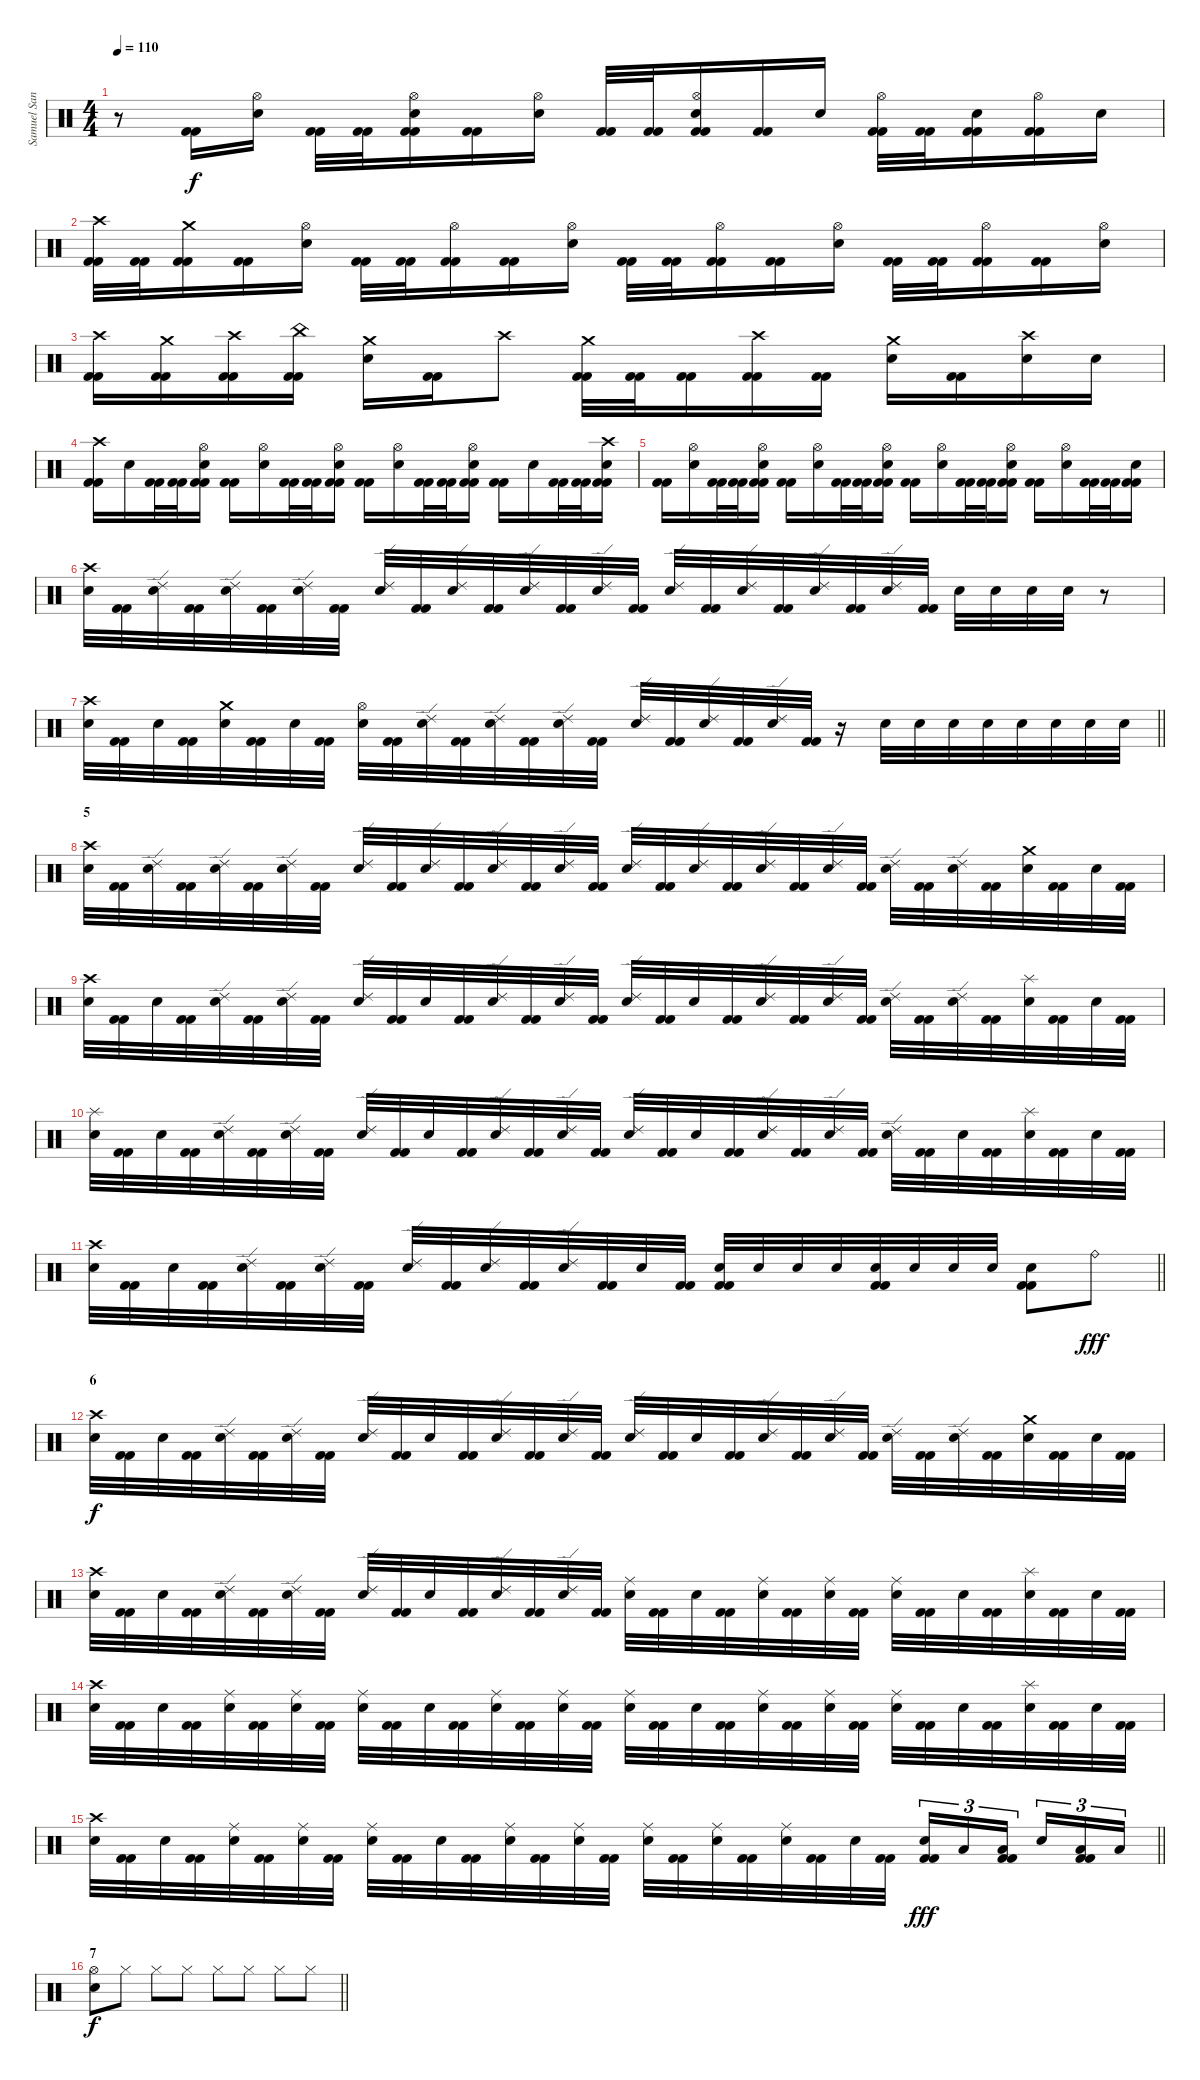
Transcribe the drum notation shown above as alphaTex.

\track ("Samuel Santiago" "Samuel San") {instrument percussion}
\staff {score}
\articulation defaults
\ts (4 4)
\tempo 110
\clef neutral
\ks c
r.8{dy f} ("Kick (hit) 2" "Kick (hit) 2").16 ("Hi-Hat (open)" "Electric Snare (hit)").16 ("Kick (hit) 2" "Kick (hit) 2").32 ("Kick (hit) 2" "Kick (hit) 2").32 ("Hi-Hat (open)" "Electric Snare (hit)" "Kick (hit) 2" "Kick (hit) 2").16 ("Kick (hit) 2" "Kick (hit) 2").16 ("Hi-Hat (open)" "Electric Snare (hit)").16 ("Kick (hit) 2" "Kick (hit) 2").32 ("Kick (hit) 2" "Kick (hit) 2").32 ("Hi-Hat (open)" "Electric Snare (hit)" "Kick (hit) 2" "Kick (hit) 2").16 ("Kick (hit) 2" "Kick (hit) 2").16 "Electric Snare (hit)".16 ("Hi-Hat (open)" "Kick (hit) 2" "Kick (hit) 2").32 ("Kick (hit) 2" "Kick (hit) 2").32 ("Electric Snare (hit)" "Kick (hit) 2" "Kick (hit) 2").16 ("Hi-Hat (open)" "Kick (hit) 2" "Kick (hit) 2").16 "Electric Snare (hit)".16 |
("Crash high (hit)" "Kick (hit) 2" "Kick (hit) 2").32 ("Kick (hit) 2" "Kick (hit) 2").32 ("Crash medium (hit)" "Kick (hit) 2" "Kick (hit) 2").16 ("Kick (hit) 2" "Kick (hit) 2").16 ("Hi-Hat (open)" "Electric Snare (hit)").16 ("Kick (hit) 2" "Kick (hit) 2").32 ("Kick (hit) 2" "Kick (hit) 2").32 ("Hi-Hat (open)" "Kick (hit) 2" "Kick (hit) 2").16 ("Kick (hit) 2" "Kick (hit) 2").16 ("Hi-Hat (open)" "Electric Snare (hit)").16 ("Kick (hit) 2" "Kick (hit) 2").32 ("Kick (hit) 2" "Kick (hit) 2").32 ("Hi-Hat (open)" "Kick (hit) 2" "Kick (hit) 2").16 ("Kick (hit) 2" "Kick (hit) 2").16 ("Hi-Hat (open)" "Electric Snare (hit)").16 ("Kick (hit) 2" "Kick (hit) 2").32 ("Kick (hit) 2" "Kick (hit) 2").32 ("Hi-Hat (open)" "Kick (hit) 2" "Kick (hit) 2").16 ("Kick (hit) 2" "Kick (hit) 2").16 ("Hi-Hat (open)" "Electric Snare (hit)").16 |
("Crash high (hit)" "Kick (hit) 2" "Kick (hit) 2").16 ("Crash medium (hit)" "Kick (hit) 2" "Kick (hit) 2").16 ("Crash high (hit)" "Kick (hit) 2" "Kick (hit) 2").16 ("China (hit)" "Kick (hit) 2" "Kick (hit) 2").16 ("Crash medium (hit)" "Electric Snare (hit)").16 ("Kick (hit) 2" "Kick (hit) 2").16 "Crash high (hit)".8 ("Crash medium (hit)" "Kick (hit) 2" "Kick (hit) 2").32 ("Kick (hit) 2" "Kick (hit) 2").32 ("Kick (hit) 2" "Kick (hit) 2").16 ("Crash high (hit)" "Kick (hit) 2" "Kick (hit) 2").16 ("Kick (hit) 2" "Kick (hit) 2").16 ("Crash medium (hit)" "Electric Snare (hit)").16 ("Kick (hit) 2" "Kick (hit) 2").16 ("Crash high (hit)" "Electric Snare (hit)").16 "Electric Snare (hit)".16 |
("Crash high (hit)" "Kick (hit) 2" "Kick (hit) 2").16 "Electric Snare (hit)".16 ("Kick (hit) 2" "Kick (hit) 2").32 ("Kick (hit) 2" "Kick (hit) 2").32 ("Hi-Hat (open)" "Electric Snare (hit)" "Kick (hit) 2" "Kick (hit) 2").16 ("Kick (hit) 2" "Kick (hit) 2").16 ("Hi-Hat (open)" "Electric Snare (hit)").16 ("Kick (hit) 2" "Kick (hit) 2").32 ("Kick (hit) 2" "Kick (hit) 2").32 ("Hi-Hat (open)" "Electric Snare (hit)" "Kick (hit) 2" "Kick (hit) 2").16 ("Kick (hit) 2" "Kick (hit) 2").16 ("Hi-Hat (open)" "Electric Snare (hit)").16 ("Kick (hit) 2" "Kick (hit) 2").32 ("Kick (hit) 2" "Kick (hit) 2").32 ("Hi-Hat (open)" "Electric Snare (hit)" "Kick (hit) 2" "Kick (hit) 2").16 ("Kick (hit) 2" "Kick (hit) 2").16 "Electric Snare (hit)".16 ("Kick (hit) 2" "Kick (hit) 2").32 ("Kick (hit) 2" "Kick (hit) 2").32 ("Crash high (hit)" "Electric Snare (hit)" "Kick (hit) 2" "Kick (hit) 2").16 |
("Kick (hit) 2" "Kick (hit) 2").16 ("Hi-Hat (open)" "Electric Snare (hit)").16 ("Kick (hit) 2" "Kick (hit) 2").32 ("Kick (hit) 2" "Kick (hit) 2").32 ("Hi-Hat (open)" "Electric Snare (hit)" "Kick (hit) 2" "Kick (hit) 2").16 ("Kick (hit) 2" "Kick (hit) 2").16 ("Hi-Hat (open)" "Electric Snare (hit)").16 ("Kick (hit) 2" "Kick (hit) 2").32 ("Kick (hit) 2" "Kick (hit) 2").32 ("Hi-Hat (open)" "Electric Snare (hit)" "Kick (hit) 2" "Kick (hit) 2").16 ("Kick (hit) 2" "Kick (hit) 2").16 ("Hi-Hat (open)" "Electric Snare (hit)").16 ("Kick (hit) 2" "Kick (hit) 2").32 ("Kick (hit) 2" "Kick (hit) 2").32 ("Hi-Hat (open)" "Electric Snare (hit)" "Kick (hit) 2" "Kick (hit) 2").16 ("Kick (hit) 2" "Kick (hit) 2").16 ("Hi-Hat (open)" "Electric Snare (hit)").16 ("Kick (hit) 2" "Kick (hit) 2").32 ("Kick (hit) 2" "Kick (hit) 2").32 ("Electric Snare (hit)" "Kick (hit) 2" "Kick (hit) 2").16 |
("Crash high (hit)" "Electric Snare (hit)").32 ("Kick (hit) 2" "Kick (hit) 2").32 ("Ride (edge) 2" "Electric Snare (hit)").32 ("Kick (hit) 2" "Kick (hit) 2").32 ("Ride (edge) 2" "Electric Snare (hit)").32 ("Kick (hit) 2" "Kick (hit) 2").32 ("Ride (edge) 2" "Electric Snare (hit)").32 ("Kick (hit) 2" "Kick (hit) 2").32 ("Ride (edge) 2" "Electric Snare (hit)").32 ("Kick (hit) 2" "Kick (hit) 2").32 ("Ride (edge) 2" "Electric Snare (hit)").32 ("Kick (hit) 2" "Kick (hit) 2").32 ("Ride (edge) 2" "Electric Snare (hit)").32 ("Kick (hit) 2" "Kick (hit) 2").32 ("Ride (edge) 2" "Electric Snare (hit)").32 ("Kick (hit) 2" "Kick (hit) 2").32 ("Ride (edge) 2" "Electric Snare (hit)").32 ("Kick (hit) 2" "Kick (hit) 2").32 ("Ride (edge) 2" "Electric Snare (hit)").32 ("Kick (hit) 2" "Kick (hit) 2").32 ("Ride (edge) 2" "Electric Snare (hit)").32 ("Kick (hit) 2" "Kick (hit) 2").32 ("Ride (edge) 2" "Electric Snare (hit)").32 ("Kick (hit) 2" "Kick (hit) 2").32 "Electric Snare (hit)".32 "Electric Snare (hit)".32 "Electric Snare (hit)".32 "Electric Snare (hit)".32 r.8 |
\barLineRight lightlight
("Crash high (hit)" "Electric Snare (hit)").32 ("Kick (hit) 2" "Kick (hit) 2").32 "Electric Snare (hit)".32 ("Kick (hit) 2" "Kick (hit) 2").32 ("Crash medium (hit)" "Electric Snare (hit)").32 ("Kick (hit) 2" "Kick (hit) 2").32 "Electric Snare (hit)".32 ("Kick (hit) 2" "Kick (hit) 2").32 ("Hi-Hat (open)" "Electric Snare (hit)").32 ("Kick (hit) 2" "Kick (hit) 2").32 ("Ride (edge) 2" "Electric Snare (hit)").32 ("Kick (hit) 2" "Kick (hit) 2").32 ("Ride (edge) 2" "Electric Snare (hit)").32 ("Kick (hit) 2" "Kick (hit) 2").32 ("Ride (edge) 2" "Electric Snare (hit)").32 ("Kick (hit) 2" "Kick (hit) 2").32 ("Ride (edge) 2" "Electric Snare (hit)").32 ("Kick (hit) 2" "Kick (hit) 2").32 ("Ride (edge) 2" "Electric Snare (hit)").32 ("Kick (hit) 2" "Kick (hit) 2").32 ("Ride (edge) 2" "Electric Snare (hit)").32 ("Kick (hit) 2" "Kick (hit) 2").32 r.16 "Electric Snare (hit)".32 "Electric Snare (hit)".32 "Electric Snare (hit)".32 "Electric Snare (hit)".32 "Electric Snare (hit)".32 "Electric Snare (hit)".32 "Electric Snare (hit)".32 "Electric Snare (hit)".32 |
\section ("" "5")
("Crash high (hit)" "Electric Snare (hit)").32 ("Kick (hit) 2" "Kick (hit) 2").32 ("Ride (edge) 2" "Electric Snare (hit)").32 ("Kick (hit) 2" "Kick (hit) 2").32 ("Ride (edge) 2" "Electric Snare (hit)").32 ("Kick (hit) 2" "Kick (hit) 2").32 ("Ride (edge) 2" "Electric Snare (hit)").32 ("Kick (hit) 2" "Kick (hit) 2").32 ("Ride (edge) 2" "Electric Snare (hit)").32 ("Kick (hit) 2" "Kick (hit) 2").32 ("Ride (edge) 2" "Electric Snare (hit)").32 ("Kick (hit) 2" "Kick (hit) 2").32 ("Ride (edge) 2" "Electric Snare (hit)").32 ("Kick (hit) 2" "Kick (hit) 2").32 ("Ride (edge) 2" "Electric Snare (hit)").32 ("Kick (hit) 2" "Kick (hit) 2").32 ("Ride (edge) 2" "Electric Snare (hit)").32 ("Kick (hit) 2" "Kick (hit) 2").32 ("Ride (edge) 2" "Electric Snare (hit)").32 ("Kick (hit) 2" "Kick (hit) 2").32 ("Ride (edge) 2" "Electric Snare (hit)").32 ("Kick (hit) 2" "Kick (hit) 2").32 ("Ride (edge) 2" "Electric Snare (hit)").32 ("Kick (hit) 2" "Kick (hit) 2").32 ("Ride (edge) 2" "Electric Snare (hit)").32 ("Kick (hit) 2" "Kick (hit) 2").32 ("Ride (edge) 2" "Electric Snare (hit)").32 ("Kick (hit) 2" "Kick (hit) 2").32 ("Crash medium (hit)" "Electric Snare (hit)").32 ("Kick (hit) 2" "Kick (hit) 2").32 "Electric Snare (hit)".32 ("Kick (hit) 2" "Kick (hit) 2").32 |
("Crash high (hit)" "Electric Snare (hit)").32 ("Kick (hit) 2" "Kick (hit) 2").32 "Electric Snare (hit)".32 ("Kick (hit) 2" "Kick (hit) 2").32 ("Ride (edge) 2" "Electric Snare (hit)").32 ("Kick (hit) 2" "Kick (hit) 2").32 ("Ride (edge) 2" "Electric Snare (hit)").32 ("Kick (hit) 2" "Kick (hit) 2").32 ("Ride (edge) 2" "Electric Snare (hit)").32 ("Kick (hit) 2" "Kick (hit) 2").32 "Electric Snare (hit)".32 ("Kick (hit) 2" "Kick (hit) 2").32 ("Ride (edge) 2" "Electric Snare (hit)").32 ("Kick (hit) 2" "Kick (hit) 2").32 ("Ride (edge) 2" "Electric Snare (hit)").32 ("Kick (hit) 2" "Kick (hit) 2").32 ("Ride (edge) 2" "Electric Snare (hit)").32 ("Kick (hit) 2" "Kick (hit) 2").32 "Electric Snare (hit)".32 ("Kick (hit) 2" "Kick (hit) 2").32 ("Ride (edge) 2" "Electric Snare (hit)").32 ("Kick (hit) 2" "Kick (hit) 2").32 ("Ride (edge) 2" "Electric Snare (hit)").32 ("Kick (hit) 2" "Kick (hit) 2").32 ("Ride (edge) 2" "Electric Snare (hit)").32 ("Kick (hit) 2" "Kick (hit) 2").32 ("Ride (edge) 2" "Electric Snare (hit)").32 ("Kick (hit) 2" "Kick (hit) 2").32 ("Splash (hit)" "Electric Snare (hit)").32 ("Kick (hit) 2" "Kick (hit) 2").32 "Electric Snare (hit)".32 ("Kick (hit) 2" "Kick (hit) 2").32 |
("Splash (hit)" "Electric Snare (hit)").32 ("Kick (hit) 2" "Kick (hit) 2").32 "Electric Snare (hit)".32 ("Kick (hit) 2" "Kick (hit) 2").32 ("Ride (edge) 2" "Electric Snare (hit)").32 ("Kick (hit) 2" "Kick (hit) 2").32 ("Ride (edge) 2" "Electric Snare (hit)").32 ("Kick (hit) 2" "Kick (hit) 2").32 ("Ride (edge) 2" "Electric Snare (hit)").32 ("Kick (hit) 2" "Kick (hit) 2").32 "Electric Snare (hit)".32 ("Kick (hit) 2" "Kick (hit) 2").32 ("Ride (edge) 2" "Electric Snare (hit)").32 ("Kick (hit) 2" "Kick (hit) 2").32 ("Ride (edge) 2" "Electric Snare (hit)").32 ("Kick (hit) 2" "Kick (hit) 2").32 ("Ride (edge) 2" "Electric Snare (hit)").32 ("Kick (hit) 2" "Kick (hit) 2").32 "Electric Snare (hit)".32 ("Kick (hit) 2" "Kick (hit) 2").32 ("Ride (edge) 2" "Electric Snare (hit)").32 ("Kick (hit) 2" "Kick (hit) 2").32 ("Ride (edge) 2" "Electric Snare (hit)").32 ("Kick (hit) 2" "Kick (hit) 2").32 ("Ride (edge) 2" "Electric Snare (hit)").32 ("Kick (hit) 2" "Kick (hit) 2").32 "Electric Snare (hit)".32 ("Kick (hit) 2" "Kick (hit) 2").32 ("Splash (hit)" "Electric Snare (hit)").32 ("Kick (hit) 2" "Kick (hit) 2").32 "Electric Snare (hit)".32 ("Kick (hit) 2" "Kick (hit) 2").32 |
\barLineRight lightlight
("Crash high (hit)" "Electric Snare (hit)").32 ("Kick (hit) 2" "Kick (hit) 2").32 "Electric Snare (hit)".32 ("Kick (hit) 2" "Kick (hit) 2").32 ("Ride (edge) 2" "Electric Snare (hit)").32 ("Kick (hit) 2" "Kick (hit) 2").32 ("Ride (edge) 2" "Electric Snare (hit)").32 ("Kick (hit) 2" "Kick (hit) 2").32 ("Ride (edge) 2" "Electric Snare (hit)").32 ("Kick (hit) 2" "Kick (hit) 2").32 ("Ride (edge) 2" "Electric Snare (hit)").32 ("Kick (hit) 2" "Kick (hit) 2").32 ("Ride (edge) 2" "Electric Snare (hit)").32 ("Kick (hit) 2" "Kick (hit) 2").32 "Electric Snare (hit)".32 ("Kick (hit) 2" "Kick (hit) 2").32 ("Electric Snare (hit)" "Kick (hit) 2" "Kick (hit) 2").32 "Electric Snare (hit)".32 "Electric Snare (hit)".32 "Electric Snare (hit)".32 ("Electric Snare (hit)" "Kick (hit) 2" "Kick (hit) 2").32 "Electric Snare (hit)".32 "Electric Snare (hit)".32 "Electric Snare (hit)".32 ("Electric Snare (hit)" "Kick (hit) 2" "Kick (hit) 2").8 "Ride (bell)".8{dy fff} |
\section ("" "6")
("Crash high (hit)" "Electric Snare (hit)").32{dy f} ("Kick (hit) 2" "Kick (hit) 2").32 "Electric Snare (hit)".32 ("Kick (hit) 2" "Kick (hit) 2").32 ("Ride (edge) 2" "Electric Snare (hit)").32 ("Kick (hit) 2" "Kick (hit) 2").32 ("Ride (edge) 2" "Electric Snare (hit)").32 ("Kick (hit) 2" "Kick (hit) 2").32 ("Ride (edge) 2" "Electric Snare (hit)").32 ("Kick (hit) 2" "Kick (hit) 2").32 "Electric Snare (hit)".32 ("Kick (hit) 2" "Kick (hit) 2").32 ("Ride (edge) 2" "Electric Snare (hit)").32 ("Kick (hit) 2" "Kick (hit) 2").32 ("Ride (edge) 2" "Electric Snare (hit)").32 ("Kick (hit) 2" "Kick (hit) 2").32 ("Ride (edge) 2" "Electric Snare (hit)").32 ("Kick (hit) 2" "Kick (hit) 2").32 "Electric Snare (hit)".32 ("Kick (hit) 2" "Kick (hit) 2").32 ("Ride (edge) 2" "Electric Snare (hit)").32 ("Kick (hit) 2" "Kick (hit) 2").32 ("Ride (edge) 2" "Electric Snare (hit)").32 ("Kick (hit) 2" "Kick (hit) 2").32 ("Ride (edge) 2" "Electric Snare (hit)").32 ("Kick (hit) 2" "Kick (hit) 2").32 ("Ride (edge) 2" "Electric Snare (hit)").32 ("Kick (hit) 2" "Kick (hit) 2").32 ("Crash medium (hit)" "Electric Snare (hit)").32 ("Kick (hit) 2" "Kick (hit) 2").32 "Electric Snare (hit)".32 ("Kick (hit) 2" "Kick (hit) 2").32 |
("Crash high (hit)" "Electric Snare (hit)").32 ("Kick (hit) 2" "Kick (hit) 2").32 "Electric Snare (hit)".32 ("Kick (hit) 2" "Kick (hit) 2").32 ("Ride (edge) 2" "Electric Snare (hit)").32 ("Kick (hit) 2" "Kick (hit) 2").32 ("Ride (edge) 2" "Electric Snare (hit)").32 ("Kick (hit) 2" "Kick (hit) 2").32 ("Ride (edge) 2" "Electric Snare (hit)").32 ("Kick (hit) 2" "Kick (hit) 2").32 "Electric Snare (hit)".32 ("Kick (hit) 2" "Kick (hit) 2").32 ("Ride (edge) 2" "Electric Snare (hit)").32 ("Kick (hit) 2" "Kick (hit) 2").32 ("Ride (edge) 2" "Electric Snare (hit)").32 ("Kick (hit) 2" "Kick (hit) 2").32 ("Ride (middle)" "Electric Snare (hit)").32 ("Kick (hit) 2" "Kick (hit) 2").32 "Electric Snare (hit)".32 ("Kick (hit) 2" "Kick (hit) 2").32 ("Ride (middle)" "Electric Snare (hit)").32 ("Kick (hit) 2" "Kick (hit) 2").32 ("Ride (middle)" "Electric Snare (hit)").32 ("Kick (hit) 2" "Kick (hit) 2").32 ("Ride (middle)" "Electric Snare (hit)").32 ("Kick (hit) 2" "Kick (hit) 2").32 "Electric Snare (hit)".32 ("Kick (hit) 2" "Kick (hit) 2").32 ("Splash (hit)" "Electric Snare (hit)").32 ("Kick (hit) 2" "Kick (hit) 2").32 "Electric Snare (hit)".32 ("Kick (hit) 2" "Kick (hit) 2").32 |
("Crash high (hit)" "Electric Snare (hit)").32 ("Kick (hit) 2" "Kick (hit) 2").32 "Electric Snare (hit)".32 ("Kick (hit) 2" "Kick (hit) 2").32 ("Ride (middle)" "Electric Snare (hit)").32 ("Kick (hit) 2" "Kick (hit) 2").32 ("Ride (middle)" "Electric Snare (hit)").32 ("Kick (hit) 2" "Kick (hit) 2").32 ("Ride (middle)" "Electric Snare (hit)").32 ("Kick (hit) 2" "Kick (hit) 2").32 "Electric Snare (hit)".32 ("Kick (hit) 2" "Kick (hit) 2").32 ("Ride (middle)" "Electric Snare (hit)").32 ("Kick (hit) 2" "Kick (hit) 2").32 ("Ride (middle)" "Electric Snare (hit)").32 ("Kick (hit) 2" "Kick (hit) 2").32 ("Ride (middle)" "Electric Snare (hit)").32 ("Kick (hit) 2" "Kick (hit) 2").32 "Electric Snare (hit)".32 ("Kick (hit) 2" "Kick (hit) 2").32 ("Ride (middle)" "Electric Snare (hit)").32 ("Kick (hit) 2" "Kick (hit) 2").32 ("Ride (middle)" "Electric Snare (hit)").32 ("Kick (hit) 2" "Kick (hit) 2").32 ("Ride (middle)" "Electric Snare (hit)").32 ("Kick (hit) 2" "Kick (hit) 2").32 "Electric Snare (hit)".32 ("Kick (hit) 2" "Kick (hit) 2").32 ("Splash (hit)" "Electric Snare (hit)").32 ("Kick (hit) 2" "Kick (hit) 2").32 "Electric Snare (hit)".32 ("Kick (hit) 2" "Kick (hit) 2").32 |
\barLineRight lightlight
("Crash high (hit)" "Electric Snare (hit)").32 ("Kick (hit) 2" "Kick (hit) 2").32 "Electric Snare (hit)".32 ("Kick (hit) 2" "Kick (hit) 2").32 ("Ride (middle)" "Electric Snare (hit)").32 ("Kick (hit) 2" "Kick (hit) 2").32 ("Ride (middle)" "Electric Snare (hit)").32 ("Kick (hit) 2" "Kick (hit) 2").32 ("Ride (middle)" "Electric Snare (hit)").32 ("Kick (hit) 2" "Kick (hit) 2").32 "Electric Snare (hit)".32 ("Kick (hit) 2" "Kick (hit) 2").32 ("Ride (middle)" "Electric Snare (hit)").32 ("Kick (hit) 2" "Kick (hit) 2").32 ("Ride (middle)" "Electric Snare (hit)").32 ("Kick (hit) 2" "Kick (hit) 2").32 ("Ride (middle)" "Electric Snare (hit)").32 ("Kick (hit) 2" "Kick (hit) 2").32 ("Ride (middle)" "Electric Snare (hit)").32 ("Kick (hit) 2" "Kick (hit) 2").32 ("Ride (middle)" "Electric Snare (hit)").32 ("Kick (hit) 2" "Kick (hit) 2").32 "Electric Snare (hit)".32 ("Kick (hit) 2" "Kick (hit) 2").32 ("Electric Snare (hit)" "Kick (hit) 2" "Kick (hit) 2").16{tu (3 2) dy fff} "Low Tom (hit)".16{tu (3 2)} ("Low Tom (hit)" "Kick (hit) 2" "Kick (hit) 2").16{tu (3 2) beam splitsecondary} "Electric Snare (hit)".16{tu (3 2)} ("Low Tom (hit)" "Kick (hit) 2" "Kick (hit) 2").16{tu (3 2)} "Low Tom (hit)".16{tu (3 2)} |
\section ("" "7")
\barLineRight lightlight
("Hi-Hat (open)" "Electric Snare (hit)").8{dy f} "Hi-Hat (closed)".8 "Hi-Hat (closed)".8 "Hi-Hat (closed)".8 "Hi-Hat (closed)".8 "Hi-Hat (closed)".8 "Hi-Hat (closed)".8 "Hi-Hat (closed)".8
